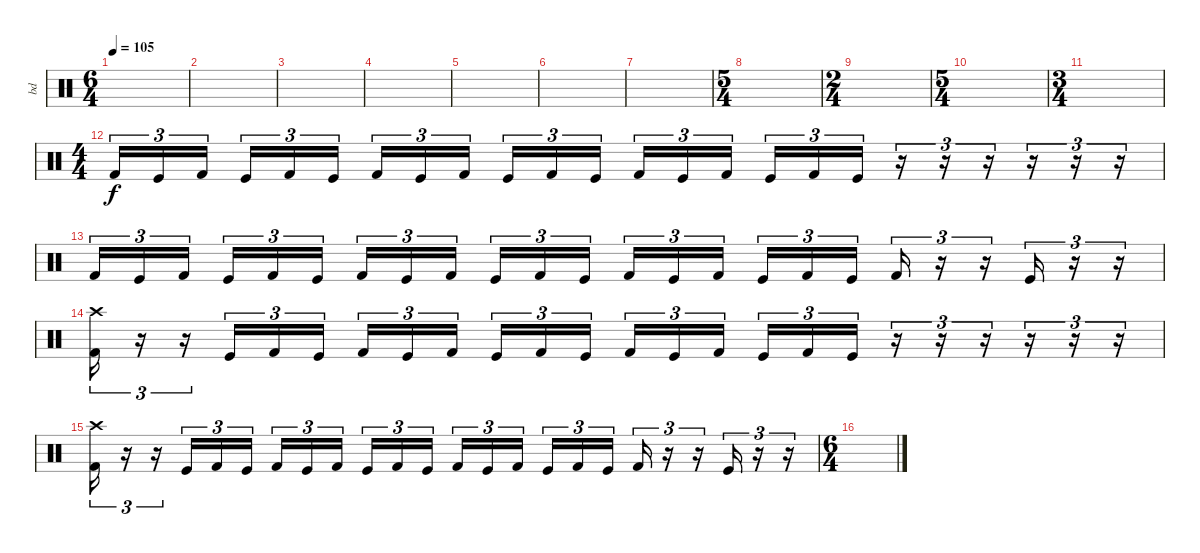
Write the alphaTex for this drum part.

\track ("bd" "bd") {instrument percussion}
\staff
\articulation defaults
\ts (6 4)
\tempo 105
\clef neutral
\ks c
|
|
|
|
|
|
|
\ts (5 4)
|
\ts (2 4)
|
\ts (5 4)
|
\ts (3 4)
|
\ts (4 4)
"Kick (hit) 2".16{tu (3 2)} "Kick (hit)".16{tu (3 2)} "Kick (hit) 2".16{tu (3 2) beam splitsecondary} "Kick (hit)".16{tu (3 2)} "Kick (hit) 2".16{tu (3 2)} "Kick (hit)".16{tu (3 2)} "Kick (hit) 2".16{tu (3 2)} "Kick (hit)".16{tu (3 2)} "Kick (hit) 2".16{tu (3 2) beam splitsecondary} "Kick (hit)".16{tu (3 2)} "Kick (hit) 2".16{tu (3 2)} "Kick (hit)".16{tu (3 2)} "Kick (hit) 2".16{tu (3 2)} "Kick (hit)".16{tu (3 2)} "Kick (hit) 2".16{tu (3 2) beam splitsecondary} "Kick (hit)".16{tu (3 2)} "Kick (hit) 2".16{tu (3 2)} "Kick (hit)".16{tu (3 2)} r.16{tu (3 2)} r.16{tu (3 2)} r.16{tu (3 2)} r.16{tu (3 2)} r.16{tu (3 2)} r.16{tu (3 2)} |
"Kick (hit) 2".16{tu (3 2)} "Kick (hit)".16{tu (3 2)} "Kick (hit) 2".16{tu (3 2) beam splitsecondary} "Kick (hit)".16{tu (3 2)} "Kick (hit) 2".16{tu (3 2)} "Kick (hit)".16{tu (3 2)} "Kick (hit) 2".16{tu (3 2)} "Kick (hit)".16{tu (3 2)} "Kick (hit) 2".16{tu (3 2) beam splitsecondary} "Kick (hit)".16{tu (3 2)} "Kick (hit) 2".16{tu (3 2)} "Kick (hit)".16{tu (3 2)} "Kick (hit) 2".16{tu (3 2)} "Kick (hit)".16{tu (3 2)} "Kick (hit) 2".16{tu (3 2) beam splitsecondary} "Kick (hit)".16{tu (3 2)} "Kick (hit) 2".16{tu (3 2)} "Kick (hit)".16{tu (3 2)} "Kick (hit) 2".16{tu (3 2)} r.16{tu (3 2)} r.16{tu (3 2)} "Kick (hit)".16{tu (3 2)} r.16{tu (3 2)} r.16{tu (3 2)} |
("Kick (hit) 2" "Crash high (hit)").16{tu (3 2)} r.16{tu (3 2)} r.16{tu (3 2)} "Kick (hit)".16{tu (3 2)} "Kick (hit) 2".16{tu (3 2)} "Kick (hit)".16{tu (3 2)} "Kick (hit) 2".16{tu (3 2)} "Kick (hit)".16{tu (3 2)} "Kick (hit) 2".16{tu (3 2) beam splitsecondary} "Kick (hit)".16{tu (3 2)} "Kick (hit) 2".16{tu (3 2)} "Kick (hit)".16{tu (3 2)} "Kick (hit) 2".16{tu (3 2)} "Kick (hit)".16{tu (3 2)} "Kick (hit) 2".16{tu (3 2) beam splitsecondary} "Kick (hit)".16{tu (3 2)} "Kick (hit) 2".16{tu (3 2)} "Kick (hit)".16{tu (3 2)} r.16{tu (3 2)} r.16{tu (3 2)} r.16{tu (3 2)} r.16{tu (3 2)} r.16{tu (3 2)} r.16{tu (3 2)} |
("Kick (hit) 2" "Crash high (hit)").16{tu (3 2)} r.16{tu (3 2)} r.16{tu (3 2)} "Kick (hit)".16{tu (3 2)} "Kick (hit) 2".16{tu (3 2)} "Kick (hit)".16{tu (3 2)} "Kick (hit) 2".16{tu (3 2)} "Kick (hit)".16{tu (3 2)} "Kick (hit) 2".16{tu (3 2) beam splitsecondary} "Kick (hit)".16{tu (3 2)} "Kick (hit) 2".16{tu (3 2)} "Kick (hit)".16{tu (3 2)} "Kick (hit) 2".16{tu (3 2)} "Kick (hit)".16{tu (3 2)} "Kick (hit) 2".16{tu (3 2) beam splitsecondary} "Kick (hit)".16{tu (3 2)} "Kick (hit) 2".16{tu (3 2)} "Kick (hit)".16{tu (3 2)} "Kick (hit) 2".16{tu (3 2)} r.16{tu (3 2)} r.16{tu (3 2)} "Kick (hit)".16{tu (3 2)} r.16{tu (3 2)} r.16{tu (3 2)} |
\ts (6 4)
